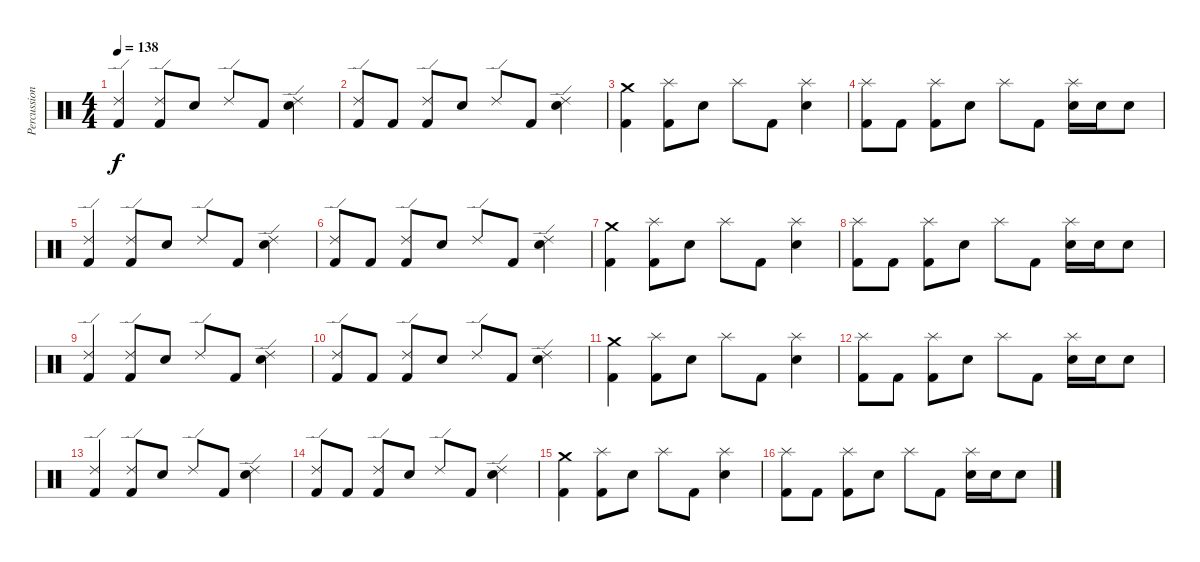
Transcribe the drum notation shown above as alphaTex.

\track ("Percussion" "Percussion") {instrument percussion}
\staff {score}
\articulation defaults
\ts (4 4)
\tempo 138
\clef neutral
\ks c
("Ride (edge) 2" "Kick (hit) 2").4{dy f} ("Ride (edge) 2" "Kick (hit) 2").8 "Snare (hit) 2".8 "Ride (edge) 2".8 "Kick (hit) 2".8 ("Ride (edge) 2" "Snare (hit) 2").4 |
("Ride (edge) 2" "Kick (hit) 2").8 "Kick (hit) 2".8 ("Ride (edge) 2" "Kick (hit) 2").8 "Snare (hit) 2".8 "Ride (edge) 2".8 "Kick (hit) 2".8 ("Ride (edge) 2" "Snare (hit) 2").4 |
("Crash medium (hit)" "Kick (hit) 2").4 ("Splash (hit)" "Kick (hit) 2").8 "Snare (hit) 2".8 "Splash (hit)".8 "Kick (hit) 2".8 ("Splash (hit)" "Snare (hit) 2").4 |
("Splash (hit)" "Kick (hit) 2").8 "Kick (hit) 2".8 ("Splash (hit)" "Kick (hit) 2").8 "Snare (hit) 2".8 "Splash (hit)".8 "Kick (hit) 2".8 ("Splash (hit)" "Snare (hit) 2").16 "Snare (hit) 2".16 "Snare (hit) 2".8 |
("Ride (edge) 2" "Kick (hit) 2").4 ("Ride (edge) 2" "Kick (hit) 2").8 "Snare (hit) 2".8 "Ride (edge) 2".8 "Kick (hit) 2".8 ("Ride (edge) 2" "Snare (hit) 2").4 |
("Ride (edge) 2" "Kick (hit) 2").8 "Kick (hit) 2".8 ("Ride (edge) 2" "Kick (hit) 2").8 "Snare (hit) 2".8 "Ride (edge) 2".8 "Kick (hit) 2".8 ("Ride (edge) 2" "Snare (hit) 2").4 |
("Crash medium (hit)" "Kick (hit) 2").4 ("Splash (hit)" "Kick (hit) 2").8 "Snare (hit) 2".8 "Splash (hit)".8 "Kick (hit) 2".8 ("Splash (hit)" "Snare (hit) 2").4 |
("Splash (hit)" "Kick (hit) 2").8 "Kick (hit) 2".8 ("Splash (hit)" "Kick (hit) 2").8 "Snare (hit) 2".8 "Splash (hit)".8 "Kick (hit) 2".8 ("Splash (hit)" "Snare (hit) 2").16 "Snare (hit) 2".16 "Snare (hit) 2".8 |
("Ride (edge) 2" "Kick (hit) 2").4 ("Ride (edge) 2" "Kick (hit) 2").8 "Snare (hit) 2".8 "Ride (edge) 2".8 "Kick (hit) 2".8 ("Ride (edge) 2" "Snare (hit) 2").4 |
("Ride (edge) 2" "Kick (hit) 2").8 "Kick (hit) 2".8 ("Ride (edge) 2" "Kick (hit) 2").8 "Snare (hit) 2".8 "Ride (edge) 2".8 "Kick (hit) 2".8 ("Ride (edge) 2" "Snare (hit) 2").4 |
("Crash medium (hit)" "Kick (hit) 2").4 ("Splash (hit)" "Kick (hit) 2").8 "Snare (hit) 2".8 "Splash (hit)".8 "Kick (hit) 2".8 ("Splash (hit)" "Snare (hit) 2").4 |
("Splash (hit)" "Kick (hit) 2").8 "Kick (hit) 2".8 ("Splash (hit)" "Kick (hit) 2").8 "Snare (hit) 2".8 "Splash (hit)".8 "Kick (hit) 2".8 ("Splash (hit)" "Snare (hit) 2").16 "Snare (hit) 2".16 "Snare (hit) 2".8 |
("Ride (edge) 2" "Kick (hit) 2").4 ("Ride (edge) 2" "Kick (hit) 2").8 "Snare (hit) 2".8 "Ride (edge) 2".8 "Kick (hit) 2".8 ("Ride (edge) 2" "Snare (hit) 2").4 |
("Ride (edge) 2" "Kick (hit) 2").8 "Kick (hit) 2".8 ("Ride (edge) 2" "Kick (hit) 2").8 "Snare (hit) 2".8 "Ride (edge) 2".8 "Kick (hit) 2".8 ("Ride (edge) 2" "Snare (hit) 2").4 |
("Crash medium (hit)" "Kick (hit) 2").4 ("Splash (hit)" "Kick (hit) 2").8 "Snare (hit) 2".8 "Splash (hit)".8 "Kick (hit) 2".8 ("Splash (hit)" "Snare (hit) 2").4 |
("Splash (hit)" "Kick (hit) 2").8 "Kick (hit) 2".8 ("Splash (hit)" "Kick (hit) 2").8 "Snare (hit) 2".8 "Splash (hit)".8 "Kick (hit) 2".8 ("Splash (hit)" "Snare (hit) 2").16 "Snare (hit) 2".16 "Snare (hit) 2".8
